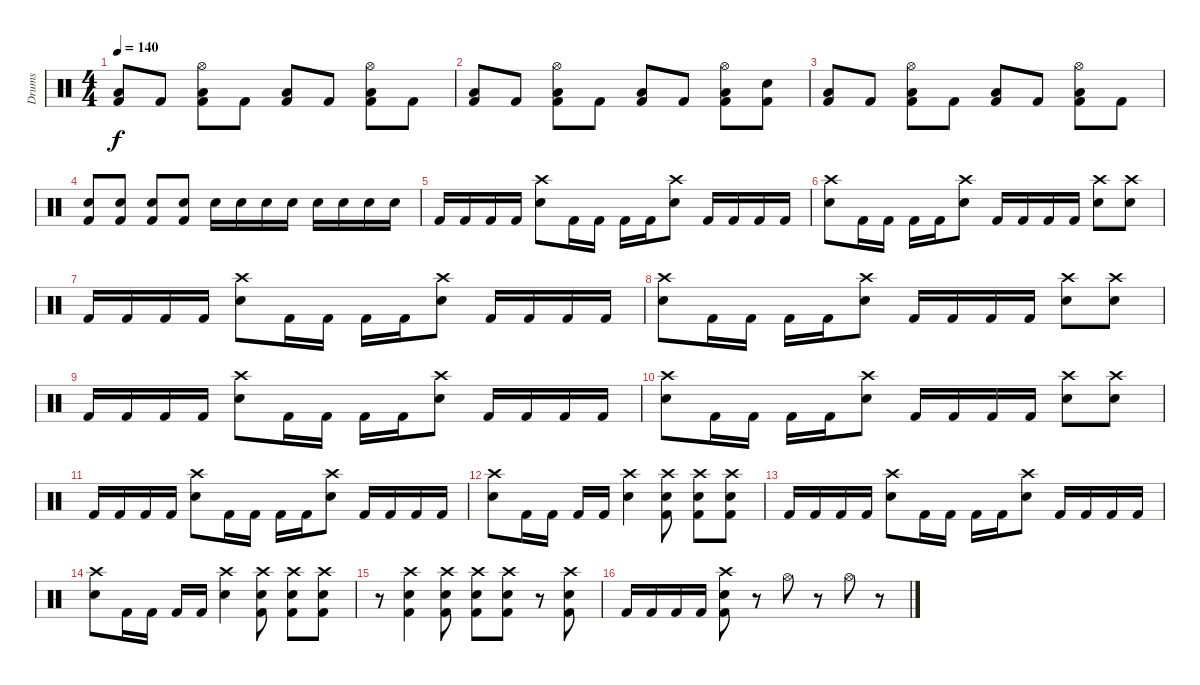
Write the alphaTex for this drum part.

\track ("Drums" "Drums") {instrument percussion}
\staff {score}
\articulation defaults
\ts (4 4)
\tempo 140
\clef neutral
\ks c
("Low Floor Tom (hit)" "Kick (hit) 2").8{dy f} "Kick (hit) 2".8 ("Hi-Hat (open)" "Low Floor Tom (hit)" "Kick (hit) 2").8 "Kick (hit) 2".8 ("Low Floor Tom (hit)" "Kick (hit) 2").8 "Kick (hit) 2".8 ("Hi-Hat (open)" "Low Floor Tom (hit)" "Kick (hit) 2").8 "Kick (hit) 2".8 |
("Low Floor Tom (hit)" "Kick (hit) 2").8 "Kick (hit) 2".8 ("Hi-Hat (open)" "Low Floor Tom (hit)" "Kick (hit) 2").8 "Kick (hit) 2".8 ("Low Floor Tom (hit)" "Kick (hit) 2").8 "Kick (hit) 2".8 ("Hi-Hat (open)" "Low Floor Tom (hit)" "Kick (hit) 2").8 ("Electric Snare (hit)" "Kick (hit) 2").8 |
("Low Floor Tom (hit)" "Kick (hit) 2").8 "Kick (hit) 2".8 ("Hi-Hat (open)" "Low Floor Tom (hit)" "Kick (hit) 2").8 "Kick (hit) 2".8 ("Low Floor Tom (hit)" "Kick (hit) 2").8 "Kick (hit) 2".8 ("Hi-Hat (open)" "Low Floor Tom (hit)" "Kick (hit) 2").8 "Kick (hit) 2".8 |
("Electric Snare (hit)" "Kick (hit) 2").8 ("Electric Snare (hit)" "Kick (hit) 2").8 ("Electric Snare (hit)" "Kick (hit) 2").8 ("Electric Snare (hit)" "Kick (hit) 2").8 "Electric Snare (hit)".16 "Electric Snare (hit)".16 "Electric Snare (hit)".16 "Electric Snare (hit)".16 "Electric Snare (hit)".16 "Electric Snare (hit)".16 "Electric Snare (hit)".16 "Electric Snare (hit)".16 |
"Kick (hit) 2".16 "Kick (hit) 2".16 "Kick (hit) 2".16 "Kick (hit) 2".16 ("Crash high (hit)" "Electric Snare (hit)").8 "Kick (hit) 2".16 "Kick (hit) 2".16 "Kick (hit) 2".16 "Kick (hit) 2".16 ("Crash high (hit)" "Electric Snare (hit)").8 "Kick (hit) 2".16 "Kick (hit) 2".16 "Kick (hit) 2".16 "Kick (hit) 2".16 |
("Crash high (hit)" "Electric Snare (hit)").8 "Kick (hit) 2".16 "Kick (hit) 2".16 "Kick (hit) 2".16 "Kick (hit) 2".16 ("Crash high (hit)" "Electric Snare (hit)").8 "Kick (hit) 2".16 "Kick (hit) 2".16 "Kick (hit) 2".16 "Kick (hit) 2".16 ("Crash high (hit)" "Electric Snare (hit)").8 ("Crash high (hit)" "Electric Snare (hit)").8 |
"Kick (hit) 2".16 "Kick (hit) 2".16 "Kick (hit) 2".16 "Kick (hit) 2".16 ("Crash high (hit)" "Electric Snare (hit)").8 "Kick (hit) 2".16 "Kick (hit) 2".16 "Kick (hit) 2".16 "Kick (hit) 2".16 ("Crash high (hit)" "Electric Snare (hit)").8 "Kick (hit) 2".16 "Kick (hit) 2".16 "Kick (hit) 2".16 "Kick (hit) 2".16 |
("Crash high (hit)" "Electric Snare (hit)").8 "Kick (hit) 2".16 "Kick (hit) 2".16 "Kick (hit) 2".16 "Kick (hit) 2".16 ("Crash high (hit)" "Electric Snare (hit)").8 "Kick (hit) 2".16 "Kick (hit) 2".16 "Kick (hit) 2".16 "Kick (hit) 2".16 ("Crash high (hit)" "Electric Snare (hit)").8 ("Crash high (hit)" "Electric Snare (hit)").8 |
"Kick (hit) 2".16 "Kick (hit) 2".16 "Kick (hit) 2".16 "Kick (hit) 2".16 ("Crash high (hit)" "Electric Snare (hit)").8 "Kick (hit) 2".16 "Kick (hit) 2".16 "Kick (hit) 2".16 "Kick (hit) 2".16 ("Crash high (hit)" "Electric Snare (hit)").8 "Kick (hit) 2".16 "Kick (hit) 2".16 "Kick (hit) 2".16 "Kick (hit) 2".16 |
("Crash high (hit)" "Electric Snare (hit)").8 "Kick (hit) 2".16 "Kick (hit) 2".16 "Kick (hit) 2".16 "Kick (hit) 2".16 ("Crash high (hit)" "Electric Snare (hit)").8 "Kick (hit) 2".16 "Kick (hit) 2".16 "Kick (hit) 2".16 "Kick (hit) 2".16 ("Crash high (hit)" "Electric Snare (hit)").8 ("Crash high (hit)" "Electric Snare (hit)").8 |
"Kick (hit) 2".16 "Kick (hit) 2".16 "Kick (hit) 2".16 "Kick (hit) 2".16 ("Crash high (hit)" "Electric Snare (hit)").8 "Kick (hit) 2".16 "Kick (hit) 2".16 "Kick (hit) 2".16 "Kick (hit) 2".16 ("Crash high (hit)" "Electric Snare (hit)").8 "Kick (hit) 2".16 "Kick (hit) 2".16 "Kick (hit) 2".16 "Kick (hit) 2".16 |
("Crash high (hit)" "Electric Snare (hit)").8 "Kick (hit) 2".16 "Kick (hit) 2".16 "Kick (hit) 2".16 "Kick (hit) 2".16 ("Crash high (hit)" "Electric Snare (hit)").4 ("Crash high (hit)" "Electric Snare (hit)" "Kick (hit) 2").8 ("Crash high (hit)" "Electric Snare (hit)" "Kick (hit) 2").8 ("Crash high (hit)" "Electric Snare (hit)" "Kick (hit) 2").8 |
"Kick (hit) 2".16 "Kick (hit) 2".16 "Kick (hit) 2".16 "Kick (hit) 2".16 ("Crash high (hit)" "Electric Snare (hit)").8 "Kick (hit) 2".16 "Kick (hit) 2".16 "Kick (hit) 2".16 "Kick (hit) 2".16 ("Crash high (hit)" "Electric Snare (hit)").8 "Kick (hit) 2".16 "Kick (hit) 2".16 "Kick (hit) 2".16 "Kick (hit) 2".16 |
("Crash high (hit)" "Electric Snare (hit)").8 "Kick (hit) 2".16 "Kick (hit) 2".16 "Kick (hit) 2".16 "Kick (hit) 2".16 ("Crash high (hit)" "Electric Snare (hit)").4 ("Crash high (hit)" "Electric Snare (hit)" "Kick (hit) 2").8 ("Crash high (hit)" "Electric Snare (hit)" "Kick (hit) 2").8 ("Crash high (hit)" "Electric Snare (hit)" "Kick (hit) 2").8 |
r.8 ("Crash high (hit)" "Electric Snare (hit)" "Kick (hit) 2").4 ("Crash high (hit)" "Electric Snare (hit)" "Kick (hit) 2").8 ("Crash high (hit)" "Electric Snare (hit)" "Kick (hit) 2").8 ("Crash high (hit)" "Electric Snare (hit)" "Kick (hit) 2").8 r.8 ("Crash high (hit)" "Electric Snare (hit)" "Kick (hit) 2").8 |
"Kick (hit) 2".16 "Kick (hit) 2".16 "Kick (hit) 2".16 "Kick (hit) 2".16 ("Crash high (hit)" "Electric Snare (hit)" "Kick (hit) 2").8 r.8 "Hi-Hat (open)".8 r.8 "Hi-Hat (open)".8 r.8
